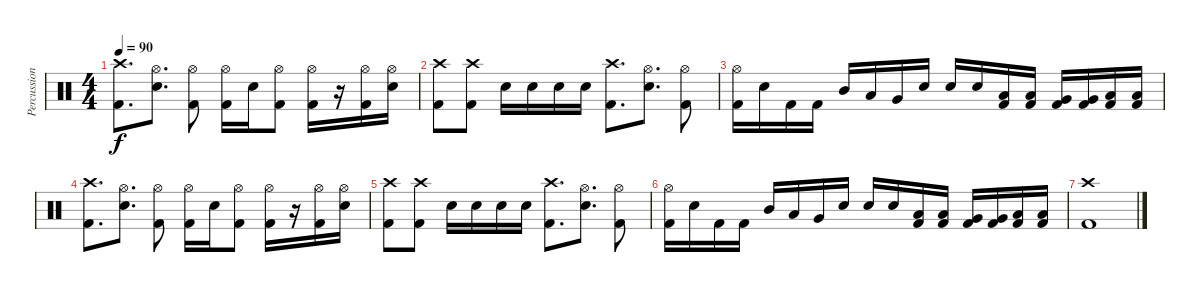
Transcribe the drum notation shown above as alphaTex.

\track ("Percussion" "Percussion") {instrument percussion}
\staff {score}
\articulation defaults
\ts (4 4)
\tempo 90
\clef neutral
\ks c
("Crash high (hit)" "Kick (hit) 2").8{d dy f} ("Hi-Hat (open)" "Snare (hit) 2").8{d} ("Hi-Hat (open)" "Kick (hit) 2").8 ("Hi-Hat (open)" "Kick (hit) 2").16 "Snare (hit) 2".16 ("Hi-Hat (open)" "Kick (hit) 2").8 ("Hi-Hat (open)" "Kick (hit) 2").16 r.16 ("Hi-Hat (open)" "Kick (hit) 2").16 ("Hi-Hat (open)" "Snare (hit) 2").16 |
("Crash high (hit)" "Kick (hit) 2").8 ("Crash high (hit)" "Kick (hit) 2").8 "Snare (hit) 2".16 "Snare (hit) 2".16 "Snare (hit) 2".16 "Snare (hit) 2".16 ("Crash high (hit)" "Kick (hit) 2").8{d} ("Hi-Hat (open)" "Snare (hit) 2").8{d} ("Hi-Hat (open)" "Kick (hit) 2").8 |
("Hi-Hat (open)" "Kick (hit) 2").16 "Snare (hit) 2".16 "Kick (hit) 2".16 "Kick (hit) 2".16 "Mid Tom (hit)".16 "Low Tom (hit)".16 "Very Low Tom (hit)".16 "Snare (hit) 2".16 "Snare (hit) 2".16 "Snare (hit) 2".16 ("Low Tom (hit)" "Kick (hit) 2").16 ("Low Tom (hit)" "Kick (hit) 2").16 ("Very Low Tom (hit)" "Kick (hit) 2").16 ("Very Low Tom (hit)" "Kick (hit) 2").16 ("Low Floor Tom (hit)" "Kick (hit) 2").16 ("Low Floor Tom (hit)" "Kick (hit) 2").16 |
("Crash high (hit)" "Kick (hit) 2").8{d} ("Hi-Hat (open)" "Snare (hit) 2").8{d} ("Hi-Hat (open)" "Kick (hit) 2").8 ("Hi-Hat (open)" "Kick (hit) 2").16 "Snare (hit) 2".16 ("Hi-Hat (open)" "Kick (hit) 2").8 ("Hi-Hat (open)" "Kick (hit) 2").16 r.16 ("Hi-Hat (open)" "Kick (hit) 2").16 ("Hi-Hat (open)" "Snare (hit) 2").16 |
("Crash high (hit)" "Kick (hit) 2").8 ("Crash high (hit)" "Kick (hit) 2").8 "Snare (hit) 2".16 "Snare (hit) 2".16 "Snare (hit) 2".16 "Snare (hit) 2".16 ("Crash high (hit)" "Kick (hit) 2").8{d} ("Hi-Hat (open)" "Snare (hit) 2").8{d} ("Hi-Hat (open)" "Kick (hit) 2").8 |
("Hi-Hat (open)" "Kick (hit) 2").16 "Snare (hit) 2".16 "Kick (hit) 2".16 "Kick (hit) 2".16 "Mid Tom (hit)".16 "Low Tom (hit)".16 "Very Low Tom (hit)".16 "Snare (hit) 2".16 "Snare (hit) 2".16 "Snare (hit) 2".16 ("Low Tom (hit)" "Kick (hit) 2").16 ("Low Tom (hit)" "Kick (hit) 2").16 ("Very Low Tom (hit)" "Kick (hit) 2").16 ("Very Low Tom (hit)" "Kick (hit) 2").16 ("Low Floor Tom (hit)" "Kick (hit) 2").16 ("Low Floor Tom (hit)" "Kick (hit) 2").16 |
("Crash high (hit)" "Kick (hit) 2").1
